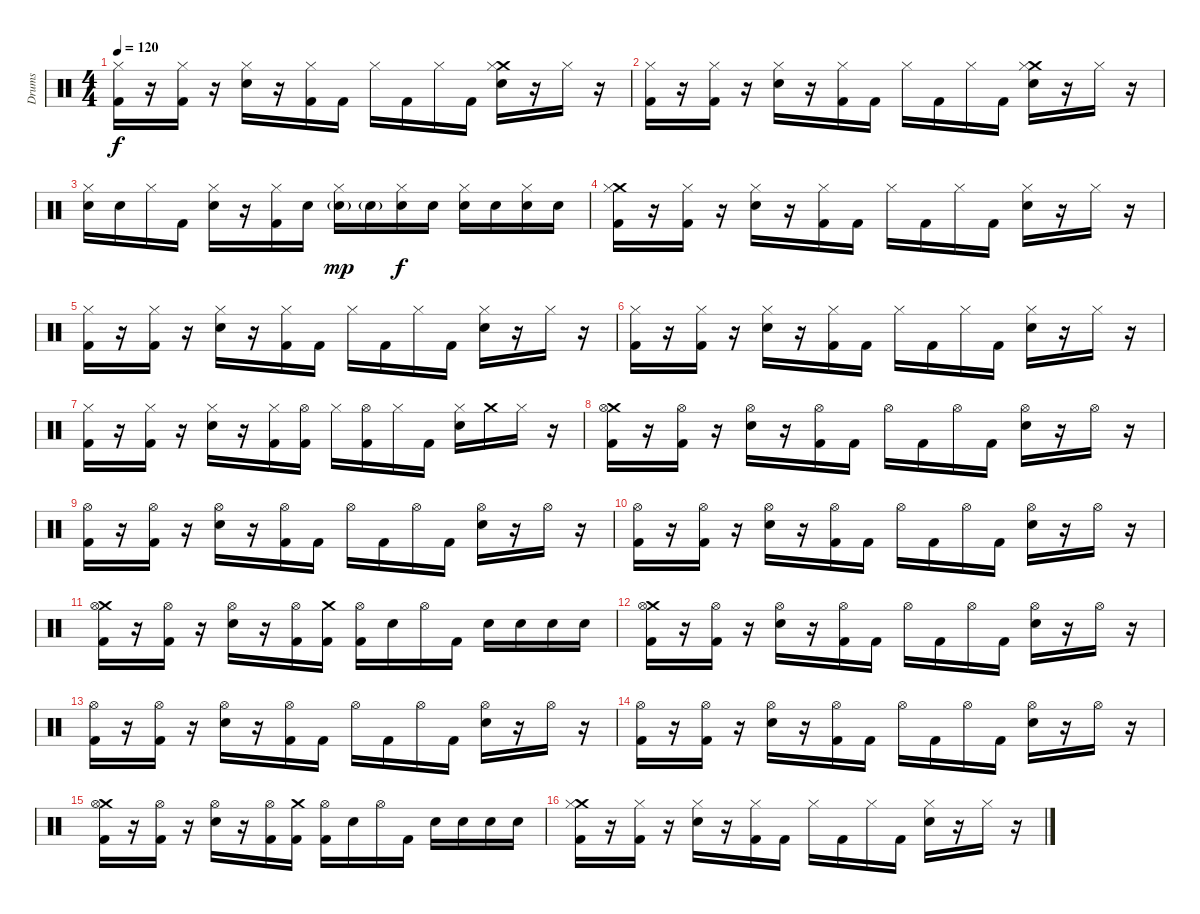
\track ("Drums" "Drums") {instrument percussion}
\staff {score}
\articulation defaults
\ts (4 4)
\tempo 120
\clef neutral
\ks c
("Hi-Hat (closed)" "Kick (hit) 2").16{dy f} r.16 ("Hi-Hat (closed)" "Kick (hit) 2").16 r.16 ("Hi-Hat (closed)" "Snare (hit) 2").16 r.16 ("Hi-Hat (closed)" "Kick (hit) 2").16 "Kick (hit) 2".16 "Hi-Hat (closed)".16 "Kick (hit) 2".16 "Hi-Hat (closed)".16 "Kick (hit) 2".16 ("Crash medium (hit)" "Hi-Hat (closed)" "Snare (hit) 2").16 r.16 "Hi-Hat (closed)".16 r.16 |
("Hi-Hat (closed)" "Kick (hit) 2").16 r.16 ("Hi-Hat (closed)" "Kick (hit) 2").16 r.16 ("Hi-Hat (closed)" "Snare (hit) 2").16 r.16 ("Hi-Hat (closed)" "Kick (hit) 2").16 "Kick (hit) 2".16 "Hi-Hat (closed)".16 "Kick (hit) 2".16 "Hi-Hat (closed)".16 "Kick (hit) 2".16 ("Crash medium (hit)" "Hi-Hat (closed)" "Snare (hit) 2").16 r.16 "Hi-Hat (closed)".16 r.16 |
("Hi-Hat (closed)" "Snare (hit) 2").16 "Snare (hit) 2".16 "Hi-Hat (closed)".16 "Kick (hit) 2".16 ("Hi-Hat (closed)" "Snare (hit) 2").16 r.16 ("Hi-Hat (closed)" "Kick (hit) 2").16 "Snare (hit) 2".16 ("Hi-Hat (closed)" "Snare (hit) 2"{g}).16{dy mp} "Snare (hit) 2"{g}.16 ("Hi-Hat (closed)" "Snare (hit) 2").16{dy f} "Snare (hit) 2".16 ("Hi-Hat (closed)" "Snare (hit) 2").16 "Snare (hit) 2".16 ("Hi-Hat (closed)" "Snare (hit) 2").16 "Snare (hit) 2".16 |
("Crash medium (hit)" "Hi-Hat (closed)" "Kick (hit) 2").16 r.16 ("Hi-Hat (closed)" "Kick (hit) 2").16 r.16 ("Hi-Hat (closed)" "Snare (hit) 2").16 r.16 ("Hi-Hat (closed)" "Kick (hit) 2").16 "Kick (hit) 2".16 "Hi-Hat (closed)".16 "Kick (hit) 2".16 "Hi-Hat (closed)".16 "Kick (hit) 2".16 ("Hi-Hat (closed)" "Snare (hit) 2").16 r.16 "Hi-Hat (closed)".16 r.16 |
("Hi-Hat (closed)" "Kick (hit) 2").16 r.16 ("Hi-Hat (closed)" "Kick (hit) 2").16 r.16 ("Hi-Hat (closed)" "Snare (hit) 2").16 r.16 ("Hi-Hat (closed)" "Kick (hit) 2").16 "Kick (hit) 2".16 "Hi-Hat (closed)".16 "Kick (hit) 2".16 "Hi-Hat (closed)".16 "Kick (hit) 2".16 ("Hi-Hat (closed)" "Snare (hit) 2").16 r.16 "Hi-Hat (closed)".16 r.16 |
("Hi-Hat (closed)" "Kick (hit) 2").16 r.16 ("Hi-Hat (closed)" "Kick (hit) 2").16 r.16 ("Hi-Hat (closed)" "Snare (hit) 2").16 r.16 ("Hi-Hat (closed)" "Kick (hit) 2").16 "Kick (hit) 2".16 "Hi-Hat (closed)".16 "Kick (hit) 2".16 "Hi-Hat (closed)".16 "Kick (hit) 2".16 ("Hi-Hat (closed)" "Snare (hit) 2").16 r.16 "Hi-Hat (closed)".16 r.16 |
("Hi-Hat (closed)" "Kick (hit) 2").16 r.16 ("Hi-Hat (closed)" "Kick (hit) 2").16 r.16 ("Hi-Hat (closed)" "Snare (hit) 2").16 r.16 ("Hi-Hat (closed)" "Kick (hit) 2").16 ("Hi-Hat (open)" "Kick (hit) 2").16 "Hi-Hat (closed)".16 ("Hi-Hat (open)" "Kick (hit) 2").16 "Hi-Hat (closed)".16 "Kick (hit) 2".16 ("Hi-Hat (closed)" "Snare (hit) 2").16 "Crash medium (hit)".16 "Hi-Hat (closed)".16 r.16 |
("Crash medium (hit)" "Hi-Hat (open)" "Kick (hit) 2").16 r.16 ("Hi-Hat (open)" "Kick (hit) 2").16 r.16 ("Hi-Hat (open)" "Snare (hit) 2").16 r.16 ("Hi-Hat (open)" "Kick (hit) 2").16 "Kick (hit) 2".16 "Hi-Hat (open)".16 "Kick (hit) 2".16 "Hi-Hat (open)".16 "Kick (hit) 2".16 ("Hi-Hat (open)" "Snare (hit) 2").16 r.16 "Hi-Hat (open)".16 r.16 |
("Hi-Hat (open)" "Kick (hit) 2").16 r.16 ("Hi-Hat (open)" "Kick (hit) 2").16 r.16 ("Hi-Hat (open)" "Snare (hit) 2").16 r.16 ("Hi-Hat (open)" "Kick (hit) 2").16 "Kick (hit) 2".16 "Hi-Hat (open)".16 "Kick (hit) 2".16 "Hi-Hat (open)".16 "Kick (hit) 2".16 ("Hi-Hat (open)" "Snare (hit) 2").16 r.16 "Hi-Hat (open)".16 r.16 |
("Hi-Hat (open)" "Kick (hit) 2").16 r.16 ("Hi-Hat (open)" "Kick (hit) 2").16 r.16 ("Hi-Hat (open)" "Snare (hit) 2").16 r.16 ("Hi-Hat (open)" "Kick (hit) 2").16 "Kick (hit) 2".16 "Hi-Hat (open)".16 "Kick (hit) 2".16 "Hi-Hat (open)".16 "Kick (hit) 2".16 ("Hi-Hat (open)" "Snare (hit) 2").16 r.16 "Hi-Hat (open)".16 r.16 |
("Crash medium (hit)" "Hi-Hat (open)" "Kick (hit) 2").16 r.16 ("Hi-Hat (open)" "Kick (hit) 2").16 r.16 ("Hi-Hat (open)" "Snare (hit) 2").16 r.16 ("Hi-Hat (open)" "Kick (hit) 2").16 ("Crash medium (hit)" "Kick (hit) 2").16 ("Hi-Hat (open)" "Kick (hit) 2").16 "Snare (hit) 2".16 "Hi-Hat (open)".16 "Kick (hit) 2".16 "Snare (hit) 2".16 "Snare (hit) 2".16 "Snare (hit) 2".16 "Snare (hit) 2".16 |
("Crash medium (hit)" "Hi-Hat (open)" "Kick (hit) 2").16 r.16 ("Hi-Hat (open)" "Kick (hit) 2").16 r.16 ("Hi-Hat (open)" "Snare (hit) 2").16 r.16 ("Hi-Hat (open)" "Kick (hit) 2").16 "Kick (hit) 2".16 "Hi-Hat (open)".16 "Kick (hit) 2".16 "Hi-Hat (open)".16 "Kick (hit) 2".16 ("Hi-Hat (open)" "Snare (hit) 2").16 r.16 "Hi-Hat (open)".16 r.16 |
("Hi-Hat (open)" "Kick (hit) 2").16 r.16 ("Hi-Hat (open)" "Kick (hit) 2").16 r.16 ("Hi-Hat (open)" "Snare (hit) 2").16 r.16 ("Hi-Hat (open)" "Kick (hit) 2").16 "Kick (hit) 2".16 "Hi-Hat (open)".16 "Kick (hit) 2".16 "Hi-Hat (open)".16 "Kick (hit) 2".16 ("Hi-Hat (open)" "Snare (hit) 2").16 r.16 "Hi-Hat (open)".16 r.16 |
("Hi-Hat (open)" "Kick (hit) 2").16 r.16 ("Hi-Hat (open)" "Kick (hit) 2").16 r.16 ("Hi-Hat (open)" "Snare (hit) 2").16 r.16 ("Hi-Hat (open)" "Kick (hit) 2").16 "Kick (hit) 2".16 "Hi-Hat (open)".16 "Kick (hit) 2".16 "Hi-Hat (open)".16 "Kick (hit) 2".16 ("Hi-Hat (open)" "Snare (hit) 2").16 r.16 "Hi-Hat (open)".16 r.16 |
("Crash medium (hit)" "Hi-Hat (open)" "Kick (hit) 2").16 r.16 ("Hi-Hat (open)" "Kick (hit) 2").16 r.16 ("Hi-Hat (open)" "Snare (hit) 2").16 r.16 ("Hi-Hat (open)" "Kick (hit) 2").16 ("Crash medium (hit)" "Kick (hit) 2").16 ("Hi-Hat (open)" "Kick (hit) 2").16 "Snare (hit) 2".16 "Hi-Hat (open)".16 "Kick (hit) 2".16 "Snare (hit) 2".16 "Snare (hit) 2".16 "Snare (hit) 2".16 "Snare (hit) 2".16 |
("Crash medium (hit)" "Hi-Hat (closed)" "Kick (hit) 2").16 r.16 ("Hi-Hat (closed)" "Kick (hit) 2").16 r.16 ("Hi-Hat (closed)" "Snare (hit) 2").16 r.16 ("Hi-Hat (closed)" "Kick (hit) 2").16 "Kick (hit) 2".16 "Hi-Hat (closed)".16 "Kick (hit) 2".16 "Hi-Hat (closed)".16 "Kick (hit) 2".16 ("Hi-Hat (closed)" "Snare (hit) 2").16 r.16 "Hi-Hat (closed)".16 r.16
